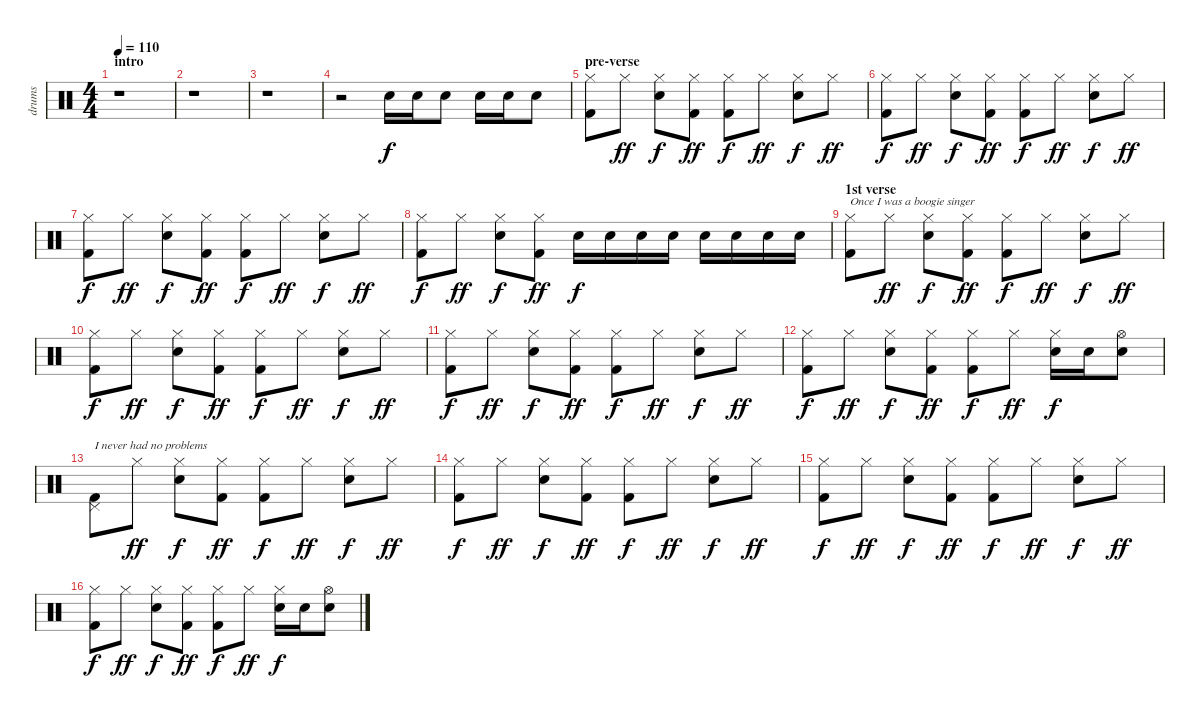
\track ("drums" "drums") {instrument percussion}
\staff {score}
\articulation defaults
\ts (4 4)
\section ("" "intro")
\tempo 110
\clef neutral
\ks aminor
r.1{dy f} |
r.1 |
r.1 |
r.2 "Snare (hit) 2".16 "Snare (hit) 2".16 "Snare (hit) 2".8 "Snare (hit) 2".16 "Snare (hit) 2".16 "Snare (hit) 2".8 |
\section ("" "pre-verse")
("Hi-Hat (closed)" "Kick (hit) 2").8 "Hi-Hat (closed)".8{dy ff} ("Hi-Hat (closed)" "Snare (hit) 2").8{dy f} ("Hi-Hat (closed)" "Kick (hit) 2").8{dy ff} ("Hi-Hat (closed)" "Kick (hit) 2").8{dy f} "Hi-Hat (closed)".8{dy ff} ("Hi-Hat (closed)" "Snare (hit) 2").8{dy f} "Hi-Hat (closed)".8{dy ff} |
("Hi-Hat (closed)" "Kick (hit) 2").8{dy f} "Hi-Hat (closed)".8{dy ff} ("Hi-Hat (closed)" "Snare (hit) 2").8{dy f} ("Hi-Hat (closed)" "Kick (hit) 2").8{dy ff} ("Hi-Hat (closed)" "Kick (hit) 2").8{dy f} "Hi-Hat (closed)".8{dy ff} ("Hi-Hat (closed)" "Snare (hit) 2").8{dy f} "Hi-Hat (closed)".8{dy ff} |
("Hi-Hat (closed)" "Kick (hit) 2").8{dy f} "Hi-Hat (closed)".8{dy ff} ("Hi-Hat (closed)" "Snare (hit) 2").8{dy f} ("Hi-Hat (closed)" "Kick (hit) 2").8{dy ff} ("Hi-Hat (closed)" "Kick (hit) 2").8{dy f} "Hi-Hat (closed)".8{dy ff} ("Hi-Hat (closed)" "Snare (hit) 2").8{dy f} "Hi-Hat (closed)".8{dy ff} |
("Hi-Hat (closed)" "Kick (hit) 2").8{dy f} "Hi-Hat (closed)".8{dy ff} ("Hi-Hat (closed)" "Snare (hit) 2").8{dy f} ("Hi-Hat (closed)" "Kick (hit) 2").8{dy ff} "Snare (hit) 2".16{dy f} "Snare (hit) 2".16 "Snare (hit) 2".16 "Snare (hit) 2".16 "Snare (hit) 2".16 "Snare (hit) 2".16 "Snare (hit) 2".16 "Snare (hit) 2".16 |
\section ("" "1st verse")
("Hi-Hat (closed)" "Kick (hit) 2").8{txt "Once I was a boogie singer"} "Hi-Hat (closed)".8{dy ff} ("Hi-Hat (closed)" "Snare (hit) 2").8{dy f} ("Hi-Hat (closed)" "Kick (hit) 2").8{dy ff} ("Hi-Hat (closed)" "Kick (hit) 2").8{dy f} "Hi-Hat (closed)".8{dy ff} ("Hi-Hat (closed)" "Snare (hit) 2").8{dy f} "Hi-Hat (closed)".8{dy ff} |
("Hi-Hat (closed)" "Kick (hit) 2").8{dy f} "Hi-Hat (closed)".8{dy ff} ("Hi-Hat (closed)" "Snare (hit) 2").8{dy f} ("Hi-Hat (closed)" "Kick (hit) 2").8{dy ff} ("Hi-Hat (closed)" "Kick (hit) 2").8{dy f} "Hi-Hat (closed)".8{dy ff} ("Hi-Hat (closed)" "Snare (hit) 2").8{dy f} "Hi-Hat (closed)".8{dy ff} |
("Hi-Hat (closed)" "Kick (hit) 2").8{dy f} "Hi-Hat (closed)".8{dy ff} ("Hi-Hat (closed)" "Snare (hit) 2").8{dy f} ("Hi-Hat (closed)" "Kick (hit) 2").8{dy ff} ("Hi-Hat (closed)" "Kick (hit) 2").8{dy f} "Hi-Hat (closed)".8{dy ff} ("Hi-Hat (closed)" "Snare (hit) 2").8{dy f} "Hi-Hat (closed)".8{dy ff} |
("Hi-Hat (closed)" "Kick (hit) 2").8{dy f} "Hi-Hat (closed)".8{dy ff} ("Hi-Hat (closed)" "Snare (hit) 2").8{dy f} ("Hi-Hat (closed)" "Kick (hit) 2").8{dy ff} ("Hi-Hat (closed)" "Kick (hit) 2").8{dy f} "Hi-Hat (closed)".8{dy ff} ("Hi-Hat (closed)" "Snare (hit) 2").16{dy f} "Snare (hit) 2".16 ("Hi-Hat (open)" "Snare (hit) 2").8 |
("Pedal Hi-Hat (hit)" "Kick (hit) 2").8{txt "I never had no problems"} "Hi-Hat (closed)".8{dy ff} ("Hi-Hat (closed)" "Snare (hit) 2").8{dy f} ("Hi-Hat (closed)" "Kick (hit) 2").8{dy ff} ("Hi-Hat (closed)" "Kick (hit) 2").8{dy f} "Hi-Hat (closed)".8{dy ff} ("Hi-Hat (closed)" "Snare (hit) 2").8{dy f} "Hi-Hat (closed)".8{dy ff} |
("Hi-Hat (closed)" "Kick (hit) 2").8{dy f} "Hi-Hat (closed)".8{dy ff} ("Hi-Hat (closed)" "Snare (hit) 2").8{dy f} ("Hi-Hat (closed)" "Kick (hit) 2").8{dy ff} ("Hi-Hat (closed)" "Kick (hit) 2").8{dy f} "Hi-Hat (closed)".8{dy ff} ("Hi-Hat (closed)" "Snare (hit) 2").8{dy f} "Hi-Hat (closed)".8{dy ff} |
("Hi-Hat (closed)" "Kick (hit) 2").8{dy f} "Hi-Hat (closed)".8{dy ff} ("Hi-Hat (closed)" "Snare (hit) 2").8{dy f} ("Hi-Hat (closed)" "Kick (hit) 2").8{dy ff} ("Hi-Hat (closed)" "Kick (hit) 2").8{dy f} "Hi-Hat (closed)".8{dy ff} ("Hi-Hat (closed)" "Snare (hit) 2").8{dy f} "Hi-Hat (closed)".8{dy ff} |
("Hi-Hat (closed)" "Kick (hit) 2").8{dy f} "Hi-Hat (closed)".8{dy ff} ("Hi-Hat (closed)" "Snare (hit) 2").8{dy f} ("Hi-Hat (closed)" "Kick (hit) 2").8{dy ff} ("Hi-Hat (closed)" "Kick (hit) 2").8{dy f} "Hi-Hat (closed)".8{dy ff} ("Hi-Hat (closed)" "Snare (hit) 2").16{dy f} "Snare (hit) 2".16 ("Hi-Hat (open)" "Snare (hit) 2").8
